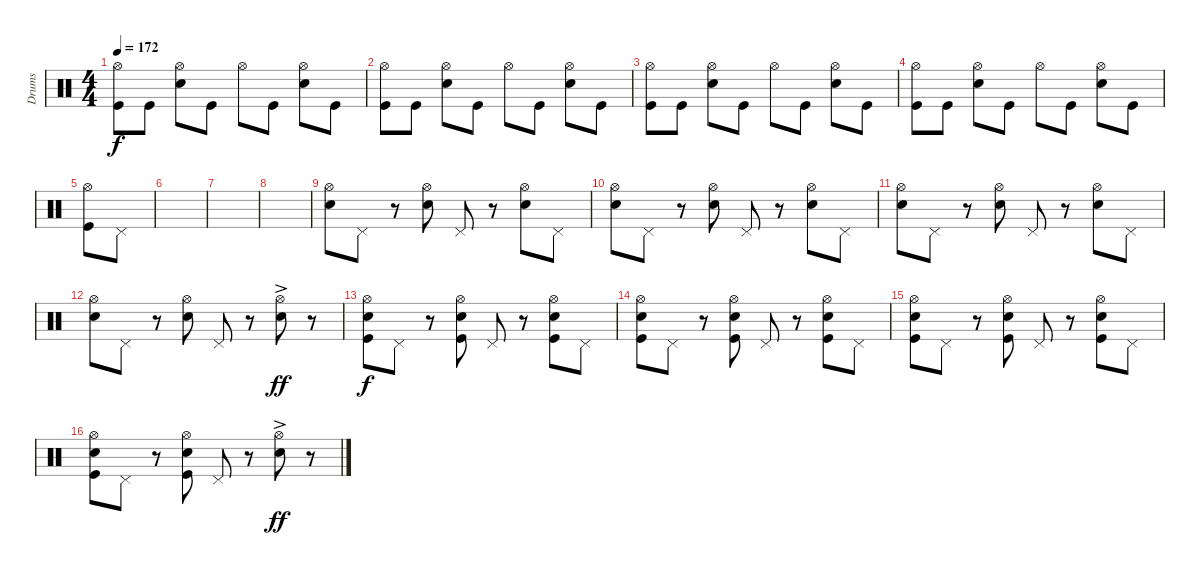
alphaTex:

\track ("Drums" "Drums") {instrument percussion}
\staff {score}
\articulation defaults
\ts (4 4)
\tempo 172
\clef neutral
\ks c
("Hi-Hat (open)" "Kick (hit)").8{dy f} "Kick (hit)".8 ("Hi-Hat (open)" "Snare (hit) 2").8 "Kick (hit)".8 "Hi-Hat (open)".8 "Kick (hit)".8 ("Hi-Hat (open)" "Snare (hit) 2").8 "Kick (hit)".8 |
("Hi-Hat (open)" "Kick (hit)").8 "Kick (hit)".8 ("Hi-Hat (open)" "Snare (hit) 2").8 "Kick (hit)".8 "Hi-Hat (open)".8 "Kick (hit)".8 ("Hi-Hat (open)" "Snare (hit) 2").8 "Kick (hit)".8 |
("Hi-Hat (open)" "Kick (hit)").8 "Kick (hit)".8 ("Hi-Hat (open)" "Snare (hit) 2").8 "Kick (hit)".8 "Hi-Hat (open)".8 "Kick (hit)".8 ("Hi-Hat (open)" "Snare (hit) 2").8 "Kick (hit)".8 |
("Hi-Hat (open)" "Kick (hit)").8 "Kick (hit)".8 ("Hi-Hat (open)" "Snare (hit) 2").8 "Kick (hit)".8 "Hi-Hat (open)".8 "Kick (hit)".8 ("Hi-Hat (open)" "Snare (hit) 2").8 "Kick (hit)".8 |
("Hi-Hat (open)" "Kick (hit)").8 "Pedal Hi-Hat (hit)".8 |
|
|
|
("Hi-Hat (open)" "Snare (hit) 2").8 "Pedal Hi-Hat (hit)".8 r.8 ("Hi-Hat (open)" "Snare (hit) 2").8 "Pedal Hi-Hat (hit)".8 r.8 ("Hi-Hat (open)" "Snare (hit) 2").8 "Pedal Hi-Hat (hit)".8 |
("Hi-Hat (open)" "Snare (hit) 2").8 "Pedal Hi-Hat (hit)".8 r.8 ("Hi-Hat (open)" "Snare (hit) 2").8 "Pedal Hi-Hat (hit)".8 r.8 ("Hi-Hat (open)" "Snare (hit) 2").8 "Pedal Hi-Hat (hit)".8 |
("Hi-Hat (open)" "Snare (hit) 2").8 "Pedal Hi-Hat (hit)".8 r.8 ("Hi-Hat (open)" "Snare (hit) 2").8 "Pedal Hi-Hat (hit)".8 r.8 ("Hi-Hat (open)" "Snare (hit) 2").8 "Pedal Hi-Hat (hit)".8 |
("Hi-Hat (open)" "Snare (hit) 2").8 "Pedal Hi-Hat (hit)".8 r.8 ("Hi-Hat (open)" "Snare (hit) 2").8 "Pedal Hi-Hat (hit)".8 r.8 ("Hi-Hat (open)"{ac} "Snare (hit) 2").8{dy ff} r.8 |
("Hi-Hat (open)" "Snare (hit) 2" "Kick (hit)").8{dy f} "Pedal Hi-Hat (hit)".8 r.8 ("Hi-Hat (open)" "Snare (hit) 2" "Kick (hit)").8 "Pedal Hi-Hat (hit)".8 r.8 ("Hi-Hat (open)" "Snare (hit) 2" "Kick (hit)").8 "Pedal Hi-Hat (hit)".8 |
("Hi-Hat (open)" "Snare (hit) 2" "Kick (hit)").8 "Pedal Hi-Hat (hit)".8 r.8 ("Hi-Hat (open)" "Snare (hit) 2" "Kick (hit)").8 "Pedal Hi-Hat (hit)".8 r.8 ("Hi-Hat (open)" "Snare (hit) 2" "Kick (hit)").8 "Pedal Hi-Hat (hit)".8 |
("Hi-Hat (open)" "Snare (hit) 2" "Kick (hit)").8 "Pedal Hi-Hat (hit)".8 r.8 ("Hi-Hat (open)" "Snare (hit) 2" "Kick (hit)").8 "Pedal Hi-Hat (hit)".8 r.8 ("Hi-Hat (open)" "Snare (hit) 2" "Kick (hit)").8 "Pedal Hi-Hat (hit)".8 |
("Hi-Hat (open)" "Snare (hit) 2" "Kick (hit)").8 "Pedal Hi-Hat (hit)".8 r.8 ("Hi-Hat (open)" "Snare (hit) 2" "Kick (hit)").8 "Pedal Hi-Hat (hit)".8 r.8 ("Hi-Hat (open)"{ac} "Snare (hit) 2").8{dy ff} r.8
